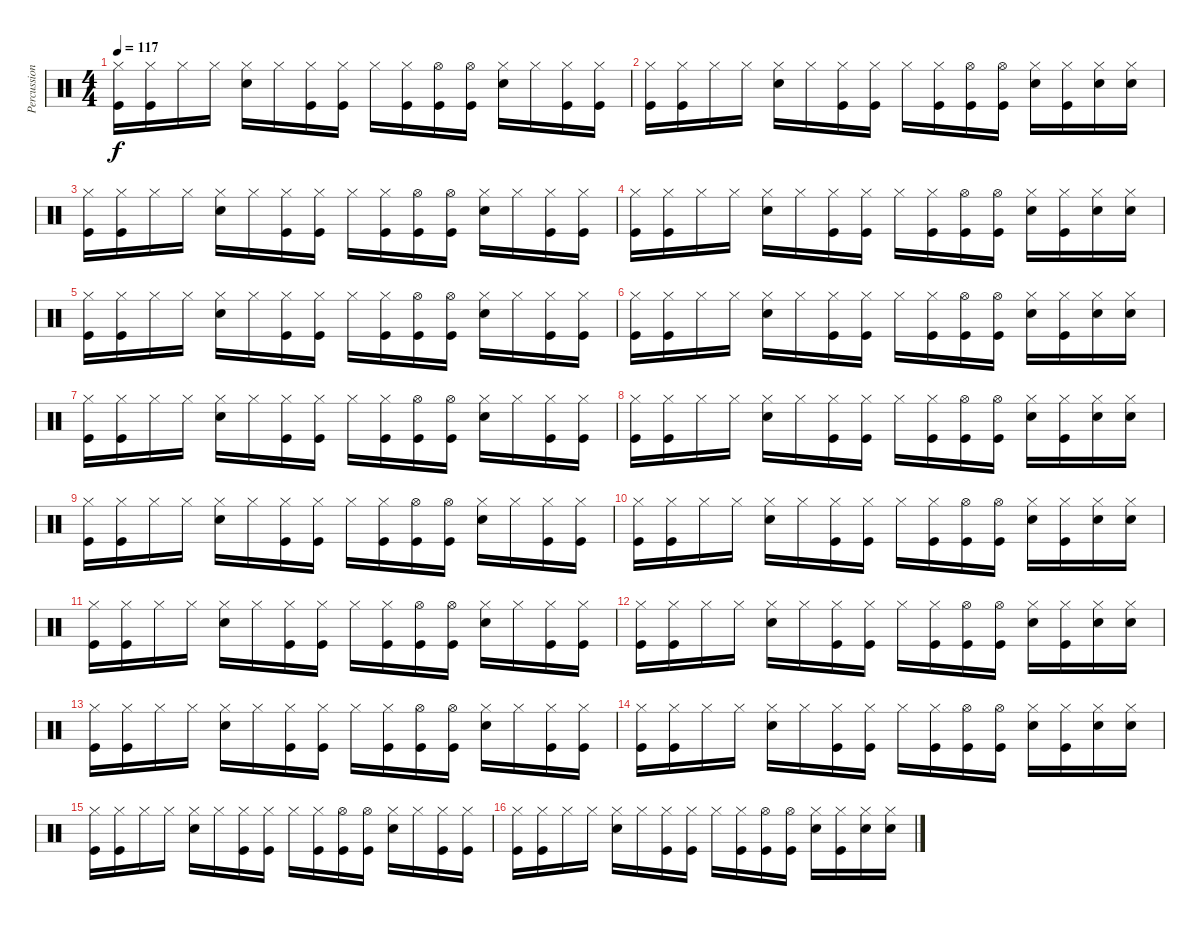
\track ("Percussions" "Percussion") {instrument percussion}
\staff {score}
\articulation defaults
\ts (4 4)
\tempo 117
\clef neutral
\ks c
("Hi-Hat (closed)" "Kick (hit)").16{dy f} ("Hi-Hat (closed)" "Kick (hit)").16 "Hi-Hat (closed)".16 "Hi-Hat (closed)".16 ("Hi-Hat (closed)" "Snare (hit) 2").16 "Hi-Hat (closed)".16 ("Hi-Hat (closed)" "Kick (hit)").16 ("Hi-Hat (closed)" "Kick (hit)").16 "Hi-Hat (closed)".16 ("Hi-Hat (closed)" "Kick (hit)").16 ("Hi-Hat (open)" "Kick (hit)").16 ("Hi-Hat (open)" "Kick (hit)").16 ("Hi-Hat (closed)" "Snare (hit) 2").16 "Hi-Hat (closed)".16 ("Hi-Hat (closed)" "Kick (hit)").16 ("Hi-Hat (closed)" "Kick (hit)").16 |
("Hi-Hat (closed)" "Kick (hit)").16 ("Hi-Hat (closed)" "Kick (hit)").16 "Hi-Hat (closed)".16 "Hi-Hat (closed)".16 ("Hi-Hat (closed)" "Snare (hit) 2").16 "Hi-Hat (closed)".16 ("Hi-Hat (closed)" "Kick (hit)").16 ("Hi-Hat (closed)" "Kick (hit)").16 "Hi-Hat (closed)".16 ("Hi-Hat (closed)" "Kick (hit)").16 ("Hi-Hat (open)" "Kick (hit)").16 ("Hi-Hat (open)" "Kick (hit)").16 ("Hi-Hat (closed)" "Snare (hit) 2").16 ("Hi-Hat (closed)" "Kick (hit)").16 ("Hi-Hat (closed)" "Snare (hit) 2").16 ("Hi-Hat (closed)" "Snare (hit) 2").16 |
("Hi-Hat (closed)" "Kick (hit)").16 ("Hi-Hat (closed)" "Kick (hit)").16 "Hi-Hat (closed)".16 "Hi-Hat (closed)".16 ("Hi-Hat (closed)" "Snare (hit) 2").16 "Hi-Hat (closed)".16 ("Hi-Hat (closed)" "Kick (hit)").16 ("Hi-Hat (closed)" "Kick (hit)").16 "Hi-Hat (closed)".16 ("Hi-Hat (closed)" "Kick (hit)").16 ("Hi-Hat (open)" "Kick (hit)").16 ("Hi-Hat (open)" "Kick (hit)").16 ("Hi-Hat (closed)" "Snare (hit) 2").16 "Hi-Hat (closed)".16 ("Hi-Hat (closed)" "Kick (hit)").16 ("Hi-Hat (closed)" "Kick (hit)").16 |
("Hi-Hat (closed)" "Kick (hit)").16 ("Hi-Hat (closed)" "Kick (hit)").16 "Hi-Hat (closed)".16 "Hi-Hat (closed)".16 ("Hi-Hat (closed)" "Snare (hit) 2").16 "Hi-Hat (closed)".16 ("Hi-Hat (closed)" "Kick (hit)").16 ("Hi-Hat (closed)" "Kick (hit)").16 "Hi-Hat (closed)".16 ("Hi-Hat (closed)" "Kick (hit)").16 ("Hi-Hat (open)" "Kick (hit)").16 ("Hi-Hat (open)" "Kick (hit)").16 ("Hi-Hat (closed)" "Snare (hit) 2").16 ("Hi-Hat (closed)" "Kick (hit)").16 ("Hi-Hat (closed)" "Snare (hit) 2").16 ("Hi-Hat (closed)" "Snare (hit) 2").16 |
("Hi-Hat (closed)" "Kick (hit)").16 ("Hi-Hat (closed)" "Kick (hit)").16 "Hi-Hat (closed)".16 "Hi-Hat (closed)".16 ("Hi-Hat (closed)" "Snare (hit) 2").16 "Hi-Hat (closed)".16 ("Hi-Hat (closed)" "Kick (hit)").16 ("Hi-Hat (closed)" "Kick (hit)").16 "Hi-Hat (closed)".16 ("Hi-Hat (closed)" "Kick (hit)").16 ("Hi-Hat (open)" "Kick (hit)").16 ("Hi-Hat (open)" "Kick (hit)").16 ("Hi-Hat (closed)" "Snare (hit) 2").16 "Hi-Hat (closed)".16 ("Hi-Hat (closed)" "Kick (hit)").16 ("Hi-Hat (closed)" "Kick (hit)").16 |
("Hi-Hat (closed)" "Kick (hit)").16 ("Hi-Hat (closed)" "Kick (hit)").16 "Hi-Hat (closed)".16 "Hi-Hat (closed)".16 ("Hi-Hat (closed)" "Snare (hit) 2").16 "Hi-Hat (closed)".16 ("Hi-Hat (closed)" "Kick (hit)").16 ("Hi-Hat (closed)" "Kick (hit)").16 "Hi-Hat (closed)".16 ("Hi-Hat (closed)" "Kick (hit)").16 ("Hi-Hat (open)" "Kick (hit)").16 ("Hi-Hat (open)" "Kick (hit)").16 ("Hi-Hat (closed)" "Snare (hit) 2").16 ("Hi-Hat (closed)" "Kick (hit)").16 ("Hi-Hat (closed)" "Snare (hit) 2").16 ("Hi-Hat (closed)" "Snare (hit) 2").16 |
("Hi-Hat (closed)" "Kick (hit)").16 ("Hi-Hat (closed)" "Kick (hit)").16 "Hi-Hat (closed)".16 "Hi-Hat (closed)".16 ("Hi-Hat (closed)" "Snare (hit) 2").16 "Hi-Hat (closed)".16 ("Hi-Hat (closed)" "Kick (hit)").16 ("Hi-Hat (closed)" "Kick (hit)").16 "Hi-Hat (closed)".16 ("Hi-Hat (closed)" "Kick (hit)").16 ("Hi-Hat (open)" "Kick (hit)").16 ("Hi-Hat (open)" "Kick (hit)").16 ("Hi-Hat (closed)" "Snare (hit) 2").16 "Hi-Hat (closed)".16 ("Hi-Hat (closed)" "Kick (hit)").16 ("Hi-Hat (closed)" "Kick (hit)").16 |
("Hi-Hat (closed)" "Kick (hit)").16 ("Hi-Hat (closed)" "Kick (hit)").16 "Hi-Hat (closed)".16 "Hi-Hat (closed)".16 ("Hi-Hat (closed)" "Snare (hit) 2").16 "Hi-Hat (closed)".16 ("Hi-Hat (closed)" "Kick (hit)").16 ("Hi-Hat (closed)" "Kick (hit)").16 "Hi-Hat (closed)".16 ("Hi-Hat (closed)" "Kick (hit)").16 ("Hi-Hat (open)" "Kick (hit)").16 ("Hi-Hat (open)" "Kick (hit)").16 ("Hi-Hat (closed)" "Snare (hit) 2").16 ("Hi-Hat (closed)" "Kick (hit)").16 ("Hi-Hat (closed)" "Snare (hit) 2").16 ("Hi-Hat (closed)" "Snare (hit) 2").16 |
("Hi-Hat (closed)" "Kick (hit)").16 ("Hi-Hat (closed)" "Kick (hit)").16 "Hi-Hat (closed)".16 "Hi-Hat (closed)".16 ("Hi-Hat (closed)" "Snare (hit) 2").16 "Hi-Hat (closed)".16 ("Hi-Hat (closed)" "Kick (hit)").16 ("Hi-Hat (closed)" "Kick (hit)").16 "Hi-Hat (closed)".16 ("Hi-Hat (closed)" "Kick (hit)").16 ("Hi-Hat (open)" "Kick (hit)").16 ("Hi-Hat (open)" "Kick (hit)").16 ("Hi-Hat (closed)" "Snare (hit) 2").16 "Hi-Hat (closed)".16 ("Hi-Hat (closed)" "Kick (hit)").16 ("Hi-Hat (closed)" "Kick (hit)").16 |
("Hi-Hat (closed)" "Kick (hit)").16 ("Hi-Hat (closed)" "Kick (hit)").16 "Hi-Hat (closed)".16 "Hi-Hat (closed)".16 ("Hi-Hat (closed)" "Snare (hit) 2").16 "Hi-Hat (closed)".16 ("Hi-Hat (closed)" "Kick (hit)").16 ("Hi-Hat (closed)" "Kick (hit)").16 "Hi-Hat (closed)".16 ("Hi-Hat (closed)" "Kick (hit)").16 ("Hi-Hat (open)" "Kick (hit)").16 ("Hi-Hat (open)" "Kick (hit)").16 ("Hi-Hat (closed)" "Snare (hit) 2").16 ("Hi-Hat (closed)" "Kick (hit)").16 ("Hi-Hat (closed)" "Snare (hit) 2").16 ("Hi-Hat (closed)" "Snare (hit) 2").16 |
("Hi-Hat (closed)" "Kick (hit)").16 ("Hi-Hat (closed)" "Kick (hit)").16 "Hi-Hat (closed)".16 "Hi-Hat (closed)".16 ("Hi-Hat (closed)" "Snare (hit) 2").16 "Hi-Hat (closed)".16 ("Hi-Hat (closed)" "Kick (hit)").16 ("Hi-Hat (closed)" "Kick (hit)").16 "Hi-Hat (closed)".16 ("Hi-Hat (closed)" "Kick (hit)").16 ("Hi-Hat (open)" "Kick (hit)").16 ("Hi-Hat (open)" "Kick (hit)").16 ("Hi-Hat (closed)" "Snare (hit) 2").16 "Hi-Hat (closed)".16 ("Hi-Hat (closed)" "Kick (hit)").16 ("Hi-Hat (closed)" "Kick (hit)").16 |
("Hi-Hat (closed)" "Kick (hit)").16 ("Hi-Hat (closed)" "Kick (hit)").16 "Hi-Hat (closed)".16 "Hi-Hat (closed)".16 ("Hi-Hat (closed)" "Snare (hit) 2").16 "Hi-Hat (closed)".16 ("Hi-Hat (closed)" "Kick (hit)").16 ("Hi-Hat (closed)" "Kick (hit)").16 "Hi-Hat (closed)".16 ("Hi-Hat (closed)" "Kick (hit)").16 ("Hi-Hat (open)" "Kick (hit)").16 ("Hi-Hat (open)" "Kick (hit)").16 ("Hi-Hat (closed)" "Snare (hit) 2").16 ("Hi-Hat (closed)" "Kick (hit)").16 ("Hi-Hat (closed)" "Snare (hit) 2").16 ("Hi-Hat (closed)" "Snare (hit) 2").16 |
("Hi-Hat (closed)" "Kick (hit)").16 ("Hi-Hat (closed)" "Kick (hit)").16 "Hi-Hat (closed)".16 "Hi-Hat (closed)".16 ("Hi-Hat (closed)" "Snare (hit) 2").16 "Hi-Hat (closed)".16 ("Hi-Hat (closed)" "Kick (hit)").16 ("Hi-Hat (closed)" "Kick (hit)").16 "Hi-Hat (closed)".16 ("Hi-Hat (closed)" "Kick (hit)").16 ("Hi-Hat (open)" "Kick (hit)").16 ("Hi-Hat (open)" "Kick (hit)").16 ("Hi-Hat (closed)" "Snare (hit) 2").16 "Hi-Hat (closed)".16 ("Hi-Hat (closed)" "Kick (hit)").16 ("Hi-Hat (closed)" "Kick (hit)").16 |
("Hi-Hat (closed)" "Kick (hit)").16 ("Hi-Hat (closed)" "Kick (hit)").16 "Hi-Hat (closed)".16 "Hi-Hat (closed)".16 ("Hi-Hat (closed)" "Snare (hit) 2").16 "Hi-Hat (closed)".16 ("Hi-Hat (closed)" "Kick (hit)").16 ("Hi-Hat (closed)" "Kick (hit)").16 "Hi-Hat (closed)".16 ("Hi-Hat (closed)" "Kick (hit)").16 ("Hi-Hat (open)" "Kick (hit)").16 ("Hi-Hat (open)" "Kick (hit)").16 ("Hi-Hat (closed)" "Snare (hit) 2").16 ("Hi-Hat (closed)" "Kick (hit)").16 ("Hi-Hat (closed)" "Snare (hit) 2").16 ("Hi-Hat (closed)" "Snare (hit) 2").16 |
("Hi-Hat (closed)" "Kick (hit)").16 ("Hi-Hat (closed)" "Kick (hit)").16 "Hi-Hat (closed)".16 "Hi-Hat (closed)".16 ("Hi-Hat (closed)" "Snare (hit) 2").16 "Hi-Hat (closed)".16 ("Hi-Hat (closed)" "Kick (hit)").16 ("Hi-Hat (closed)" "Kick (hit)").16 "Hi-Hat (closed)".16 ("Hi-Hat (closed)" "Kick (hit)").16 ("Hi-Hat (open)" "Kick (hit)").16 ("Hi-Hat (open)" "Kick (hit)").16 ("Hi-Hat (closed)" "Snare (hit) 2").16 "Hi-Hat (closed)".16 ("Hi-Hat (closed)" "Kick (hit)").16 ("Hi-Hat (closed)" "Kick (hit)").16 |
("Hi-Hat (closed)" "Kick (hit)").16 ("Hi-Hat (closed)" "Kick (hit)").16 "Hi-Hat (closed)".16 "Hi-Hat (closed)".16 ("Hi-Hat (closed)" "Snare (hit) 2").16 "Hi-Hat (closed)".16 ("Hi-Hat (closed)" "Kick (hit)").16 ("Hi-Hat (closed)" "Kick (hit)").16 "Hi-Hat (closed)".16 ("Hi-Hat (closed)" "Kick (hit)").16 ("Hi-Hat (open)" "Kick (hit)").16 ("Hi-Hat (open)" "Kick (hit)").16 ("Hi-Hat (closed)" "Snare (hit) 2").16 ("Hi-Hat (closed)" "Kick (hit)").16 ("Hi-Hat (closed)" "Snare (hit) 2").16 ("Hi-Hat (closed)" "Snare (hit) 2").16
